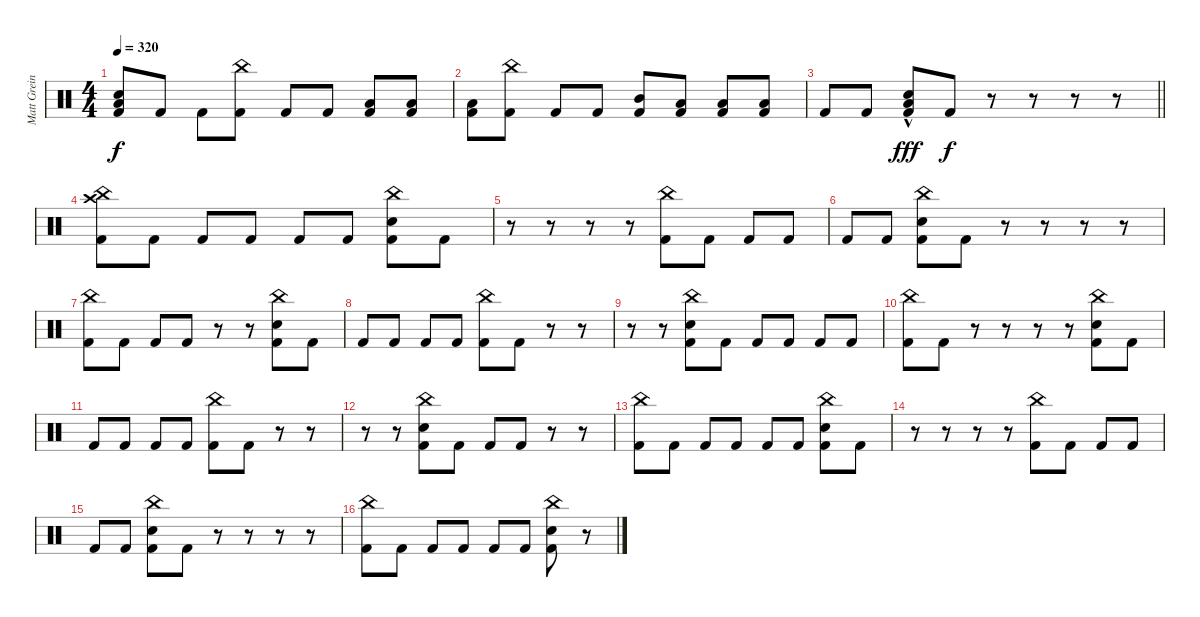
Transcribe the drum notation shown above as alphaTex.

\track ("Matt Greiner (Drums)" "Matt Grein") {instrument percussion}
\staff {score}
\articulation defaults
\ts (4 4)
\tempo 320
\clef neutral
\ks c
("Low Floor Tom (hit)" "Electric Snare (hit)" "Kick (hit) 2").8{dy f} "Kick (hit) 2".8 "Kick (hit) 2".8 ("China (hit)" "Kick (hit) 2").8 "Kick (hit) 2".8 "Kick (hit) 2".8 ("Low Tom (hit)" "Kick (hit) 2").8 ("Low Tom (hit)" "Kick (hit) 2").8 |
("Low Floor Tom (hit)" "Kick (hit) 2").8 ("China (hit)" "Kick (hit) 2").8 "Kick (hit) 2".8 "Kick (hit) 2".8 ("Mid Tom (hit)" "Kick (hit) 2").8 ("Low Tom (hit)" "Kick (hit) 2").8 ("Low Floor Tom (hit)" "Kick (hit) 2").8 ("Low Floor Tom (hit)" "Kick (hit) 2").8 |
\barLineRight lightlight "Kick (hit) 2".8 "Kick (hit) 2".8
("Low Floor Tom (hit)"{hac} "Electric Snare (hit)" "Kick (hit) 2").8{dy fff} "Kick (hit) 2".8{dy f} r.8 r.8 r.8 r.8 |
("Crash high (hit)" "China (hit)" "Kick (hit) 2").8 "Kick (hit) 2".8 "Kick (hit) 2".8 "Kick (hit) 2".8 "Kick (hit) 2".8 "Kick (hit) 2".8 ("China (hit)" "Electric Snare (hit)" "Kick (hit) 2").8 "Kick (hit) 2".8 |
r.8 r.8 r.8 r.8 ("China (hit)" "Kick (hit) 2").8 "Kick (hit) 2".8 "Kick (hit) 2".8 "Kick (hit) 2".8 |
"Kick (hit) 2".8 "Kick (hit) 2".8 ("China (hit)" "Electric Snare (hit)" "Kick (hit) 2").8 "Kick (hit) 2".8 r.8 r.8 r.8 r.8 |
("China (hit)" "Kick (hit) 2").8 "Kick (hit) 2".8 "Kick (hit) 2".8 "Kick (hit) 2".8 r.8 r.8 ("China (hit)" "Electric Snare (hit)" "Kick (hit) 2").8 "Kick (hit) 2".8 |
"Kick (hit) 2".8 "Kick (hit) 2".8 "Kick (hit) 2".8 "Kick (hit) 2".8 ("China (hit)" "Kick (hit) 2").8 "Kick (hit) 2".8 r.8 r.8 |
r.8 r.8 ("China (hit)" "Electric Snare (hit)" "Kick (hit) 2").8 "Kick (hit) 2".8 "Kick (hit) 2".8 "Kick (hit) 2".8 "Kick (hit) 2".8 "Kick (hit) 2".8 |
("China (hit)" "Kick (hit) 2").8 "Kick (hit) 2".8 r.8 r.8 r.8 r.8 ("China (hit)" "Electric Snare (hit)" "Kick (hit) 2").8 "Kick (hit) 2".8 |
"Kick (hit) 2".8 "Kick (hit) 2".8 "Kick (hit) 2".8 "Kick (hit) 2".8 ("China (hit)" "Kick (hit) 2").8 "Kick (hit) 2".8 r.8 r.8 |
r.8 r.8 ("China (hit)" "Electric Snare (hit)" "Kick (hit) 2").8 "Kick (hit) 2".8 "Kick (hit) 2".8 "Kick (hit) 2".8 r.8 r.8 |
("China (hit)" "Kick (hit) 2").8 "Kick (hit) 2".8 "Kick (hit) 2".8 "Kick (hit) 2".8 "Kick (hit) 2".8 "Kick (hit) 2".8 ("China (hit)" "Electric Snare (hit)" "Kick (hit) 2").8 "Kick (hit) 2".8 |
r.8 r.8 r.8 r.8 ("China (hit)" "Kick (hit) 2").8 "Kick (hit) 2".8 "Kick (hit) 2".8 "Kick (hit) 2".8 |
"Kick (hit) 2".8 "Kick (hit) 2".8 ("China (hit)" "Electric Snare (hit)" "Kick (hit) 2").8 "Kick (hit) 2".8 r.8 r.8 r.8 r.8 |
("China (hit)" "Kick (hit) 2").8 "Kick (hit) 2".8 "Kick (hit) 2".8 "Kick (hit) 2".8 "Kick (hit) 2".8 "Kick (hit) 2".8 ("China (hit)" "Electric Snare (hit)" "Kick (hit) 2").8 r.8
